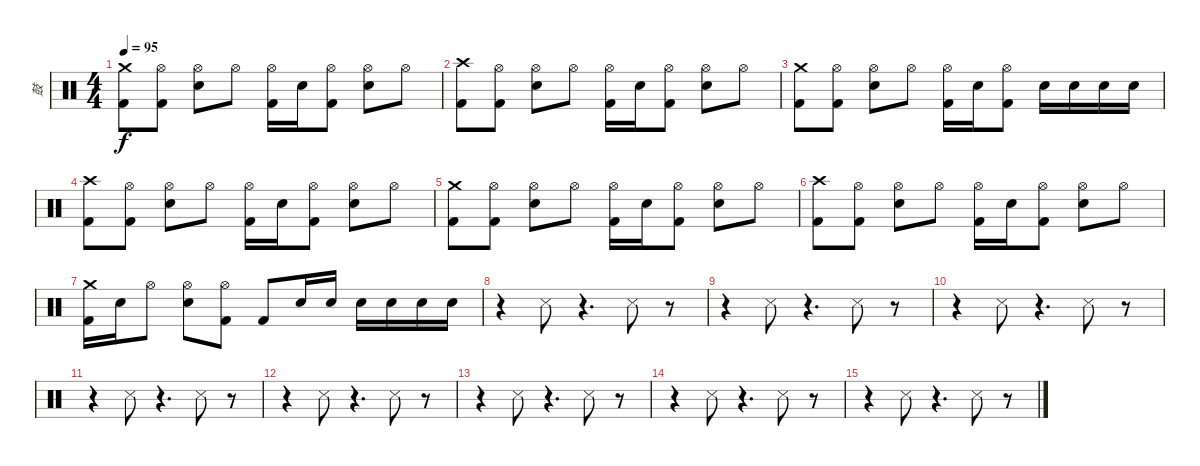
\track ("鼓" "鼓") {instrument percussion}
\staff {score}
\articulation defaults
\ts (4 4)
\tempo 95
\clef neutral
\ks c
("Crash medium (hit)" "Kick (hit) 2").8{dy f} ("Hi-Hat (open)" "Kick (hit) 2").8 ("Hi-Hat (open)" "Snare (hit) 2").8 "Hi-Hat (open)".8 ("Hi-Hat (open)" "Kick (hit) 2").16 "Snare (hit) 2".16 ("Hi-Hat (open)" "Kick (hit) 2").8 ("Hi-Hat (open)" "Snare (hit) 2").8 "Hi-Hat (open)".8 |
("Crash high (hit)" "Kick (hit) 2").8 ("Hi-Hat (open)" "Kick (hit) 2").8 ("Hi-Hat (open)" "Snare (hit) 2").8 "Hi-Hat (open)".8 ("Hi-Hat (open)" "Kick (hit) 2").16 "Snare (hit) 2".16 ("Hi-Hat (open)" "Kick (hit) 2").8 ("Hi-Hat (open)" "Snare (hit) 2").8 "Hi-Hat (open)".8 |
("Crash medium (hit)" "Kick (hit) 2").8 ("Hi-Hat (open)" "Kick (hit) 2").8 ("Hi-Hat (open)" "Snare (hit) 2").8 "Hi-Hat (open)".8 ("Hi-Hat (open)" "Kick (hit) 2").16 "Snare (hit) 2".16 ("Hi-Hat (open)" "Kick (hit) 2").8 "Snare (hit) 2".16 "Snare (hit) 2".16 "Snare (hit) 2".16 "Snare (hit) 2".16 |
("Crash high (hit)" "Kick (hit) 2").8 ("Hi-Hat (open)" "Kick (hit) 2").8 ("Hi-Hat (open)" "Snare (hit) 2").8 "Hi-Hat (open)".8 ("Hi-Hat (open)" "Kick (hit) 2").16 "Snare (hit) 2".16 ("Hi-Hat (open)" "Kick (hit) 2").8 ("Hi-Hat (open)" "Snare (hit) 2").8 "Hi-Hat (open)".8 |
("Crash medium (hit)" "Kick (hit) 2").8 ("Hi-Hat (open)" "Kick (hit) 2").8 ("Hi-Hat (open)" "Snare (hit) 2").8 "Hi-Hat (open)".8 ("Hi-Hat (open)" "Kick (hit) 2").16 "Snare (hit) 2".16 ("Hi-Hat (open)" "Kick (hit) 2").8 ("Hi-Hat (open)" "Snare (hit) 2").8 "Hi-Hat (open)".8 |
("Crash high (hit)" "Kick (hit) 2").8 ("Hi-Hat (open)" "Kick (hit) 2").8 ("Hi-Hat (open)" "Snare (hit) 2").8 "Hi-Hat (open)".8 ("Hi-Hat (open)" "Kick (hit) 2").16 "Snare (hit) 2".16 ("Hi-Hat (open)" "Kick (hit) 2").8 ("Hi-Hat (open)" "Snare (hit) 2").8 "Hi-Hat (open)".8 |
("Crash medium (hit)" "Kick (hit) 2").16 "Snare (hit) 2".16 "Hi-Hat (open)".8 ("Hi-Hat (open)" "Snare (hit) 2").8 ("Hi-Hat (open)" "Kick (hit) 2").8 "Kick (hit) 2".8 "Snare (hit) 2".16 "Snare (hit) 2".16 "Snare (hit) 2".16 "Snare (hit) 2".16 "Snare (hit) 2".16 "Snare (hit) 2".16 |
r.4 "Snare (side stick) 3".8 r.4{d} "Snare (side stick) 3".8 r.8 |
r.4 "Snare (side stick) 3".8 r.4{d} "Snare (side stick) 3".8 r.8 |
r.4 "Snare (side stick) 3".8 r.4{d} "Snare (side stick) 3".8 r.8 |
r.4 "Snare (side stick) 3".8 r.4{d} "Snare (side stick) 3".8 r.8 |
r.4 "Snare (side stick) 3".8 r.4{d} "Snare (side stick) 3".8 r.8 |
r.4 "Snare (side stick) 3".8 r.4{d} "Snare (side stick) 3".8 r.8 |
r.4 "Snare (side stick) 3".8 r.4{d} "Snare (side stick) 3".8 r.8 |
r.4 "Snare (side stick) 3".8 r.4{d} "Snare (side stick) 3".8 r.8
